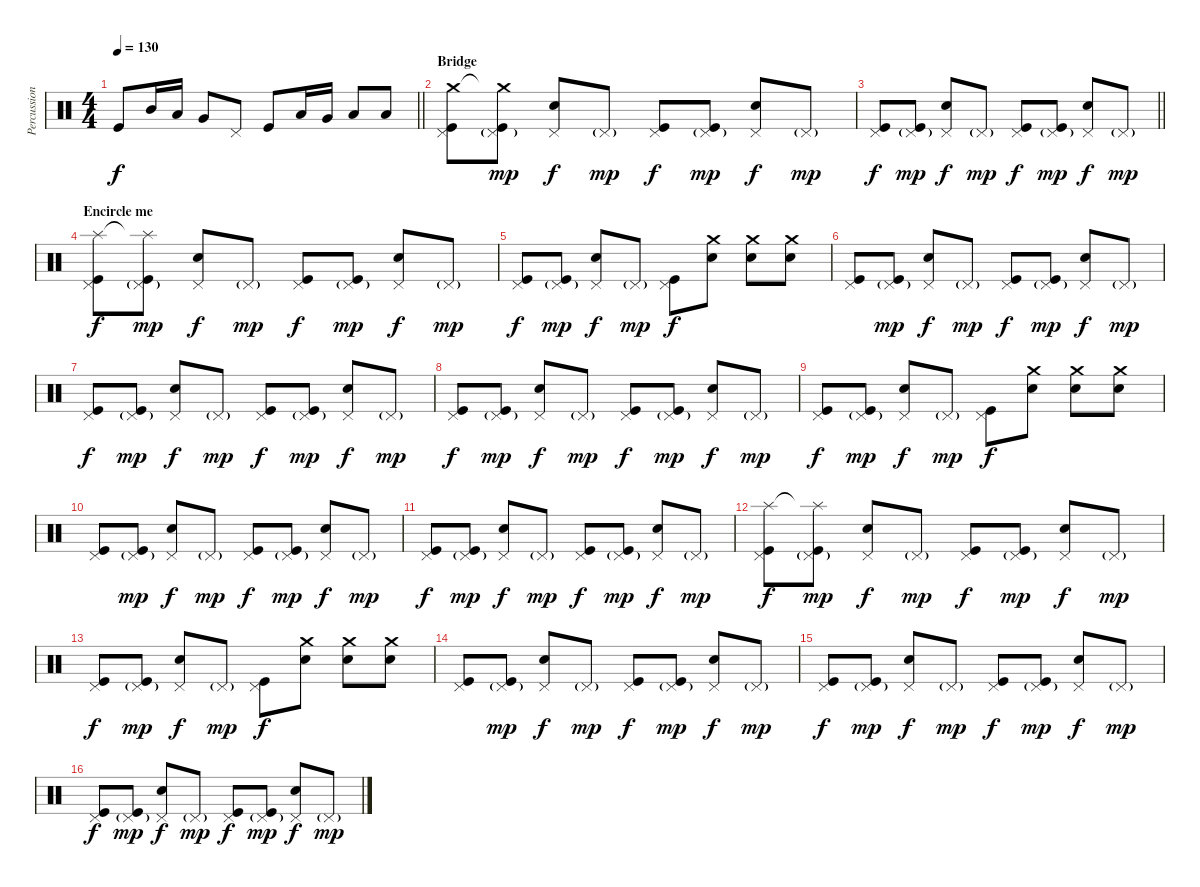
\track ("Percussion" "Percussion") {instrument percussion}
\staff {score}
\articulation defaults
\ts (4 4)
\tempo 130
\clef neutral
\barLineRight lightlight
\ks c "Kick (hit)".8{dy f} "Mid Tom (hit)".16 "Low Tom (hit)".16 "Very Low Tom (hit)".8 "Pedal Hi-Hat (hit)".8 "Kick (hit)".8 "Low Tom (hit)".16 "Very Low Tom (hit)".16 "Low Floor Tom (hit)".8 "Low Floor Tom (hit)".8
|
\section ("" "Bridge")
("Crash medium (hit)" "Pedal Hi-Hat (hit)" "Kick (hit)").8 ("Crash medium (hit)"{t} "Pedal Hi-Hat (hit)"{g} "Kick (hit)").8{dy mp} ("Pedal Hi-Hat (hit)" "Snare (hit) 2").8{dy f} "Pedal Hi-Hat (hit)"{g}.8{dy mp} ("Pedal Hi-Hat (hit)" "Kick (hit)").8{dy f} ("Pedal Hi-Hat (hit)"{g} "Kick (hit)").8{dy mp} ("Pedal Hi-Hat (hit)" "Snare (hit) 2").8{dy f} "Pedal Hi-Hat (hit)"{g}.8{dy mp} |
\barLineRight lightlight
("Pedal Hi-Hat (hit)" "Kick (hit)").8{dy f} ("Pedal Hi-Hat (hit)"{g} "Kick (hit)").8{dy mp} ("Pedal Hi-Hat (hit)" "Snare (hit) 2").8{dy f} "Pedal Hi-Hat (hit)"{g}.8{dy mp} ("Pedal Hi-Hat (hit)" "Kick (hit)").8{dy f} ("Pedal Hi-Hat (hit)"{g} "Kick (hit)").8{dy mp} ("Pedal Hi-Hat (hit)" "Snare (hit) 2").8{dy f} "Pedal Hi-Hat (hit)"{g}.8{dy mp} |
\section ("" "Encircle me")
("Splash (hit)" "Pedal Hi-Hat (hit)" "Kick (hit)").8{dy f} ("Splash (hit)"{t} "Pedal Hi-Hat (hit)"{g} "Kick (hit)").8{dy mp} ("Pedal Hi-Hat (hit)" "Snare (hit) 2").8{dy f} "Pedal Hi-Hat (hit)"{g}.8{dy mp} ("Pedal Hi-Hat (hit)" "Kick (hit)").8{dy f} ("Pedal Hi-Hat (hit)"{g} "Kick (hit)").8{dy mp} ("Pedal Hi-Hat (hit)" "Snare (hit) 2").8{dy f} "Pedal Hi-Hat (hit)"{g}.8{dy mp} |
("Pedal Hi-Hat (hit)" "Kick (hit)").8{dy f} ("Pedal Hi-Hat (hit)"{g} "Kick (hit)").8{dy mp} ("Pedal Hi-Hat (hit)" "Snare (hit) 2").8{dy f} "Pedal Hi-Hat (hit)"{g}.8{dy mp} ("Pedal Hi-Hat (hit)" "Kick (hit)").8{dy f} ("Crash medium (hit)" "Snare (hit) 2").8 ("Crash medium (hit)" "Snare (hit) 2").8 ("Crash medium (hit)" "Snare (hit) 2").8 |
("Pedal Hi-Hat (hit)" "Kick (hit)").8 ("Pedal Hi-Hat (hit)"{g} "Kick (hit)").8{dy mp} ("Pedal Hi-Hat (hit)" "Snare (hit) 2").8{dy f} "Pedal Hi-Hat (hit)"{g}.8{dy mp} ("Pedal Hi-Hat (hit)" "Kick (hit)").8{dy f} ("Pedal Hi-Hat (hit)"{g} "Kick (hit)").8{dy mp} ("Pedal Hi-Hat (hit)" "Snare (hit) 2").8{dy f} "Pedal Hi-Hat (hit)"{g}.8{dy mp} |
("Pedal Hi-Hat (hit)" "Kick (hit)").8{dy f} ("Pedal Hi-Hat (hit)"{g} "Kick (hit)").8{dy mp} ("Pedal Hi-Hat (hit)" "Snare (hit) 2").8{dy f} "Pedal Hi-Hat (hit)"{g}.8{dy mp} ("Pedal Hi-Hat (hit)" "Kick (hit)").8{dy f} ("Pedal Hi-Hat (hit)"{g} "Kick (hit)").8{dy mp} ("Pedal Hi-Hat (hit)" "Snare (hit) 2").8{dy f} "Pedal Hi-Hat (hit)"{g}.8{dy mp} |
("Pedal Hi-Hat (hit)" "Kick (hit)").8{dy f} ("Pedal Hi-Hat (hit)"{g} "Kick (hit)").8{dy mp} ("Pedal Hi-Hat (hit)" "Snare (hit) 2").8{dy f} "Pedal Hi-Hat (hit)"{g}.8{dy mp} ("Pedal Hi-Hat (hit)" "Kick (hit)").8{dy f} ("Pedal Hi-Hat (hit)"{g} "Kick (hit)").8{dy mp} ("Pedal Hi-Hat (hit)" "Snare (hit) 2").8{dy f} "Pedal Hi-Hat (hit)"{g}.8{dy mp} |
("Pedal Hi-Hat (hit)" "Kick (hit)").8{dy f} ("Pedal Hi-Hat (hit)"{g} "Kick (hit)").8{dy mp} ("Pedal Hi-Hat (hit)" "Snare (hit) 2").8{dy f} "Pedal Hi-Hat (hit)"{g}.8{dy mp} ("Pedal Hi-Hat (hit)" "Kick (hit)").8{dy f} ("Crash medium (hit)" "Snare (hit) 2").8 ("Crash medium (hit)" "Snare (hit) 2").8 ("Crash medium (hit)" "Snare (hit) 2").8 |
("Pedal Hi-Hat (hit)" "Kick (hit)").8 ("Pedal Hi-Hat (hit)"{g} "Kick (hit)").8{dy mp} ("Pedal Hi-Hat (hit)" "Snare (hit) 2").8{dy f} "Pedal Hi-Hat (hit)"{g}.8{dy mp} ("Pedal Hi-Hat (hit)" "Kick (hit)").8{dy f} ("Pedal Hi-Hat (hit)"{g} "Kick (hit)").8{dy mp} ("Pedal Hi-Hat (hit)" "Snare (hit) 2").8{dy f} "Pedal Hi-Hat (hit)"{g}.8{dy mp} |
("Pedal Hi-Hat (hit)" "Kick (hit)").8{dy f} ("Pedal Hi-Hat (hit)"{g} "Kick (hit)").8{dy mp} ("Pedal Hi-Hat (hit)" "Snare (hit) 2").8{dy f} "Pedal Hi-Hat (hit)"{g}.8{dy mp} ("Pedal Hi-Hat (hit)" "Kick (hit)").8{dy f} ("Pedal Hi-Hat (hit)"{g} "Kick (hit)").8{dy mp} ("Pedal Hi-Hat (hit)" "Snare (hit) 2").8{dy f} "Pedal Hi-Hat (hit)"{g}.8{dy mp} |
("Splash (hit)" "Pedal Hi-Hat (hit)" "Kick (hit)").8{dy f} ("Splash (hit)"{t} "Pedal Hi-Hat (hit)"{g} "Kick (hit)").8{dy mp} ("Pedal Hi-Hat (hit)" "Snare (hit) 2").8{dy f} "Pedal Hi-Hat (hit)"{g}.8{dy mp} ("Pedal Hi-Hat (hit)" "Kick (hit)").8{dy f} ("Pedal Hi-Hat (hit)"{g} "Kick (hit)").8{dy mp} ("Pedal Hi-Hat (hit)" "Snare (hit) 2").8{dy f} "Pedal Hi-Hat (hit)"{g}.8{dy mp} |
("Pedal Hi-Hat (hit)" "Kick (hit)").8{dy f} ("Pedal Hi-Hat (hit)"{g} "Kick (hit)").8{dy mp} ("Pedal Hi-Hat (hit)" "Snare (hit) 2").8{dy f} "Pedal Hi-Hat (hit)"{g}.8{dy mp} ("Pedal Hi-Hat (hit)" "Kick (hit)").8{dy f} ("Crash medium (hit)" "Snare (hit) 2").8 ("Crash medium (hit)" "Snare (hit) 2").8 ("Crash medium (hit)" "Snare (hit) 2").8 |
("Pedal Hi-Hat (hit)" "Kick (hit)").8 ("Pedal Hi-Hat (hit)"{g} "Kick (hit)").8{dy mp} ("Pedal Hi-Hat (hit)" "Snare (hit) 2").8{dy f} "Pedal Hi-Hat (hit)"{g}.8{dy mp} ("Pedal Hi-Hat (hit)" "Kick (hit)").8{dy f} ("Pedal Hi-Hat (hit)"{g} "Kick (hit)").8{dy mp} ("Pedal Hi-Hat (hit)" "Snare (hit) 2").8{dy f} "Pedal Hi-Hat (hit)"{g}.8{dy mp} |
("Pedal Hi-Hat (hit)" "Kick (hit)").8{dy f} ("Pedal Hi-Hat (hit)"{g} "Kick (hit)").8{dy mp} ("Pedal Hi-Hat (hit)" "Snare (hit) 2").8{dy f} "Pedal Hi-Hat (hit)"{g}.8{dy mp} ("Pedal Hi-Hat (hit)" "Kick (hit)").8{dy f} ("Pedal Hi-Hat (hit)"{g} "Kick (hit)").8{dy mp} ("Pedal Hi-Hat (hit)" "Snare (hit) 2").8{dy f} "Pedal Hi-Hat (hit)"{g}.8{dy mp} |
("Pedal Hi-Hat (hit)" "Kick (hit)").8{dy f} ("Pedal Hi-Hat (hit)"{g} "Kick (hit)").8{dy mp} ("Pedal Hi-Hat (hit)" "Snare (hit) 2").8{dy f} "Pedal Hi-Hat (hit)"{g}.8{dy mp} ("Pedal Hi-Hat (hit)" "Kick (hit)").8{dy f} ("Pedal Hi-Hat (hit)"{g} "Kick (hit)").8{dy mp} ("Pedal Hi-Hat (hit)" "Snare (hit) 2").8{dy f} "Pedal Hi-Hat (hit)"{g}.8{dy mp}
